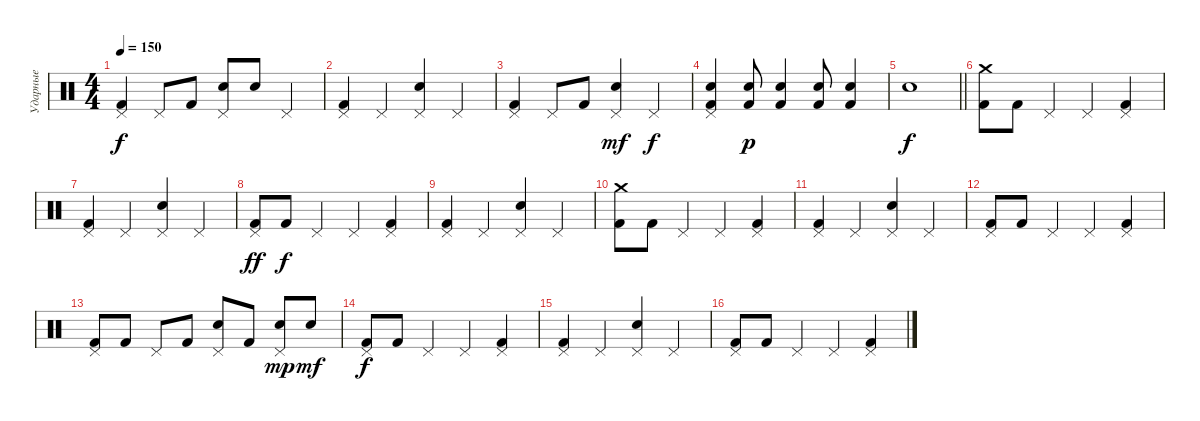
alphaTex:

\track ("Ударные" "Ударные") {mute instrument percussion}
\staff {score}
\articulation defaults
\ts (4 4)
\tempo 150
\clef neutral
\ks c
("Pedal Hi-Hat (hit)" "Kick (hit) 2").4{dy f} "Pedal Hi-Hat (hit)".8 "Kick (hit) 2".8 ("Pedal Hi-Hat (hit)" "Snare (hit) 2").8 "Snare (hit) 2".8 "Pedal Hi-Hat (hit)".4 |
("Pedal Hi-Hat (hit)" "Kick (hit) 2").4 "Pedal Hi-Hat (hit)".4 ("Pedal Hi-Hat (hit)" "Snare (hit) 2").4 "Pedal Hi-Hat (hit)".4 |
("Pedal Hi-Hat (hit)" "Kick (hit) 2").4 "Pedal Hi-Hat (hit)".8 "Kick (hit) 2".8 ("Pedal Hi-Hat (hit)" "Snare (hit) 2").4{dy mf} "Pedal Hi-Hat (hit)".4{dy f} |
("Pedal Hi-Hat (hit)" "Snare (hit) 2" "Kick (hit) 2").4 ("Snare (hit) 2" "Kick (hit) 2").8{dy p} ("Snare (hit) 2" "Kick (hit) 2").4 ("Snare (hit) 2" "Kick (hit) 2").8 ("Snare (hit) 2" "Kick (hit) 2").4 |
\barLineRight lightlight "Snare (hit) 2".1{dy f}
|
("Crash medium (hit)" "Kick (hit) 2").8 "Kick (hit) 2".8 "Pedal Hi-Hat (hit)".4 "Pedal Hi-Hat (hit)".4 ("Pedal Hi-Hat (hit)" "Kick (hit) 2").4 |
("Pedal Hi-Hat (hit)" "Kick (hit) 2").4 "Pedal Hi-Hat (hit)".4 ("Pedal Hi-Hat (hit)" "Snare (hit) 2").4 "Pedal Hi-Hat (hit)".4 |
("Pedal Hi-Hat (hit)" "Kick (hit) 2").8{dy ff} "Kick (hit) 2".8{dy f} "Pedal Hi-Hat (hit)".4 "Pedal Hi-Hat (hit)".4 ("Pedal Hi-Hat (hit)" "Kick (hit) 2").4 |
("Pedal Hi-Hat (hit)" "Kick (hit) 2").4 "Pedal Hi-Hat (hit)".4 ("Pedal Hi-Hat (hit)" "Snare (hit) 2").4 "Pedal Hi-Hat (hit)".4 |
("Crash medium (hit)" "Kick (hit) 2").8 "Kick (hit) 2".8 "Pedal Hi-Hat (hit)".4 "Pedal Hi-Hat (hit)".4 ("Pedal Hi-Hat (hit)" "Kick (hit) 2").4 |
("Pedal Hi-Hat (hit)" "Kick (hit) 2").4 "Pedal Hi-Hat (hit)".4 ("Pedal Hi-Hat (hit)" "Snare (hit) 2").4 "Pedal Hi-Hat (hit)".4 |
("Pedal Hi-Hat (hit)" "Kick (hit) 2").8 "Kick (hit) 2".8 "Pedal Hi-Hat (hit)".4 "Pedal Hi-Hat (hit)".4 ("Pedal Hi-Hat (hit)" "Kick (hit) 2").4 |
("Pedal Hi-Hat (hit)" "Kick (hit) 2").8 "Kick (hit) 2".8 "Pedal Hi-Hat (hit)".8 "Kick (hit) 2".8 ("Pedal Hi-Hat (hit)" "Snare (hit) 2").8 "Kick (hit) 2".8 ("Pedal Hi-Hat (hit)" "Snare (hit) 2").8{dy mp} "Snare (hit) 2".8{dy mf} |
("Pedal Hi-Hat (hit)" "Kick (hit) 2").8{dy f} "Kick (hit) 2".8 "Pedal Hi-Hat (hit)".4 "Pedal Hi-Hat (hit)".4 ("Pedal Hi-Hat (hit)" "Kick (hit) 2").4 |
("Pedal Hi-Hat (hit)" "Kick (hit) 2").4 "Pedal Hi-Hat (hit)".4 ("Pedal Hi-Hat (hit)" "Snare (hit) 2").4 "Pedal Hi-Hat (hit)".4 |
("Pedal Hi-Hat (hit)" "Kick (hit) 2").8 "Kick (hit) 2".8 "Pedal Hi-Hat (hit)".4 "Pedal Hi-Hat (hit)".4 ("Pedal Hi-Hat (hit)" "Kick (hit) 2").4
